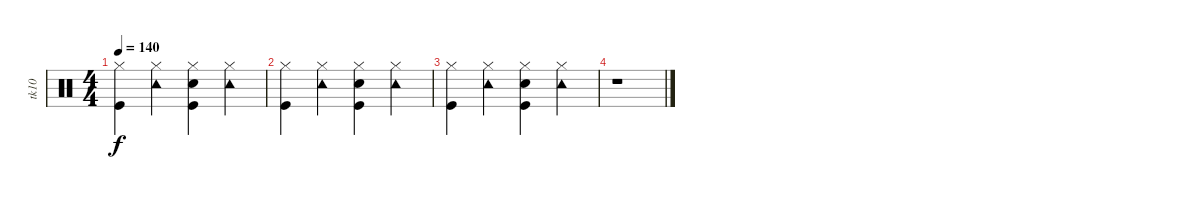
\track ("tk10" "tk10") {instrument percussion}
\staff {score}
\articulation defaults
\ts (4 4)
\tempo 140
\clef neutral
\ks c
("Hi-Hat (closed)" "Kick (hit)").4{dy f} ("Tambourine (hit)" "Hi-Hat (closed)").4 ("Electric Snare (hit)" "Hi-Hat (closed)" "Kick (hit)").4 ("Hi-Hat (closed)" "Tambourine (hit)").4 |
("Hi-Hat (closed)" "Kick (hit)").4 ("Tambourine (hit)" "Hi-Hat (closed)").4 ("Electric Snare (hit)" "Hi-Hat (closed)" "Kick (hit)").4 ("Hi-Hat (closed)" "Tambourine (hit)").4 |
("Hi-Hat (closed)" "Kick (hit)").4 ("Tambourine (hit)" "Hi-Hat (closed)").4 ("Electric Snare (hit)" "Hi-Hat (closed)" "Kick (hit)").4 ("Hi-Hat (closed)" "Tambourine (hit)").4 |
r.1
